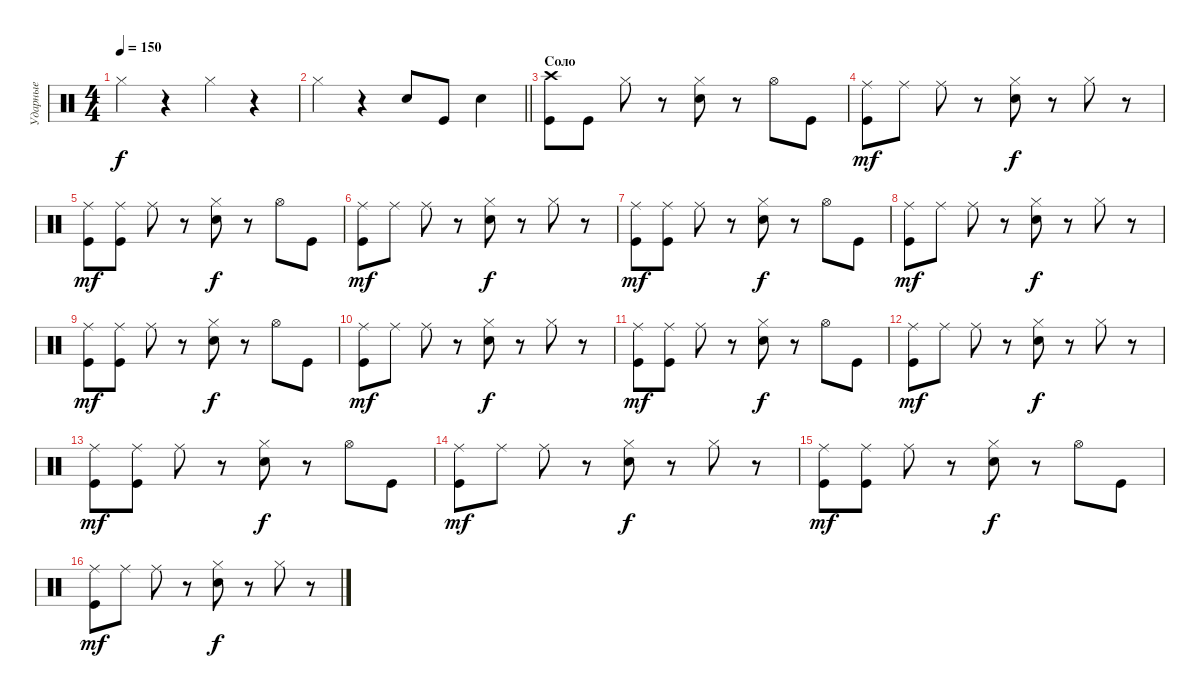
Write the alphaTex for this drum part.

\track ("Ударные" "Ударные") {instrument percussion}
\staff {score}
\articulation defaults
\ts (4 4)
\tempo 150
\clef neutral
\ks c "Hi-Hat (closed)".4{dy f}
r.4 "Hi-Hat (closed)".4 r.4 |
\barLineRight lightlight "Hi-Hat (closed)".4
r.4 "Snare (hit) 2".8 "Kick (hit)".8 "Snare (hit) 2".4 |
\section ("" "Соло")
("Crash high (hit)" "Kick (hit)").8 "Kick (hit)".8 "Hi-Hat (closed)".8 r.8 ("Hi-Hat (closed)" "Snare (hit) 2").8 r.8 "Hi-Hat (open)".8 "Kick (hit)".8 |
("Ride (middle)" "Kick (hit)").8{dy mf} "Ride (middle)".8 "Ride (middle)".8 r.8 ("Hi-Hat (closed)" "Snare (hit) 2").8{dy f} r.8 "Hi-Hat (closed)".8 r.8 |
("Ride (middle)" "Kick (hit)").8{dy mf} ("Ride (middle)" "Kick (hit)").8 "Ride (middle)".8 r.8 ("Hi-Hat (closed)" "Snare (hit) 2").8{dy f} r.8 "Hi-Hat (open)".8 "Kick (hit)".8 |
("Ride (middle)" "Kick (hit)").8{dy mf} "Ride (middle)".8 "Ride (middle)".8 r.8 ("Hi-Hat (closed)" "Snare (hit) 2").8{dy f} r.8 "Hi-Hat (closed)".8 r.8 |
("Ride (middle)" "Kick (hit)").8{dy mf} ("Ride (middle)" "Kick (hit)").8 "Ride (middle)".8 r.8 ("Hi-Hat (closed)" "Snare (hit) 2").8{dy f} r.8 "Hi-Hat (open)".8 "Kick (hit)".8 |
("Ride (middle)" "Kick (hit)").8{dy mf} "Ride (middle)".8 "Ride (middle)".8 r.8 ("Hi-Hat (closed)" "Snare (hit) 2").8{dy f} r.8 "Hi-Hat (closed)".8 r.8 |
("Ride (middle)" "Kick (hit)").8{dy mf} ("Ride (middle)" "Kick (hit)").8 "Ride (middle)".8 r.8 ("Hi-Hat (closed)" "Snare (hit) 2").8{dy f} r.8 "Hi-Hat (open)".8 "Kick (hit)".8 |
("Ride (middle)" "Kick (hit)").8{dy mf} "Ride (middle)".8 "Ride (middle)".8 r.8 ("Hi-Hat (closed)" "Snare (hit) 2").8{dy f} r.8 "Hi-Hat (closed)".8 r.8 |
("Ride (middle)" "Kick (hit)").8{dy mf} ("Ride (middle)" "Kick (hit)").8 "Ride (middle)".8 r.8 ("Hi-Hat (closed)" "Snare (hit) 2").8{dy f} r.8 "Hi-Hat (open)".8 "Kick (hit)".8 |
("Ride (middle)" "Kick (hit)").8{dy mf} "Ride (middle)".8 "Ride (middle)".8 r.8 ("Hi-Hat (closed)" "Snare (hit) 2").8{dy f} r.8 "Hi-Hat (closed)".8 r.8 |
("Ride (middle)" "Kick (hit)").8{dy mf} ("Ride (middle)" "Kick (hit)").8 "Ride (middle)".8 r.8 ("Hi-Hat (closed)" "Snare (hit) 2").8{dy f} r.8 "Hi-Hat (open)".8 "Kick (hit)".8 |
("Ride (middle)" "Kick (hit)").8{dy mf} "Ride (middle)".8 "Ride (middle)".8 r.8 ("Hi-Hat (closed)" "Snare (hit) 2").8{dy f} r.8 "Hi-Hat (closed)".8 r.8 |
("Ride (middle)" "Kick (hit)").8{dy mf} ("Ride (middle)" "Kick (hit)").8 "Ride (middle)".8 r.8 ("Hi-Hat (closed)" "Snare (hit) 2").8{dy f} r.8 "Hi-Hat (open)".8 "Kick (hit)".8 |
("Ride (middle)" "Kick (hit)").8{dy mf} "Ride (middle)".8 "Ride (middle)".8 r.8 ("Hi-Hat (closed)" "Snare (hit) 2").8{dy f} r.8 "Hi-Hat (closed)".8 r.8
